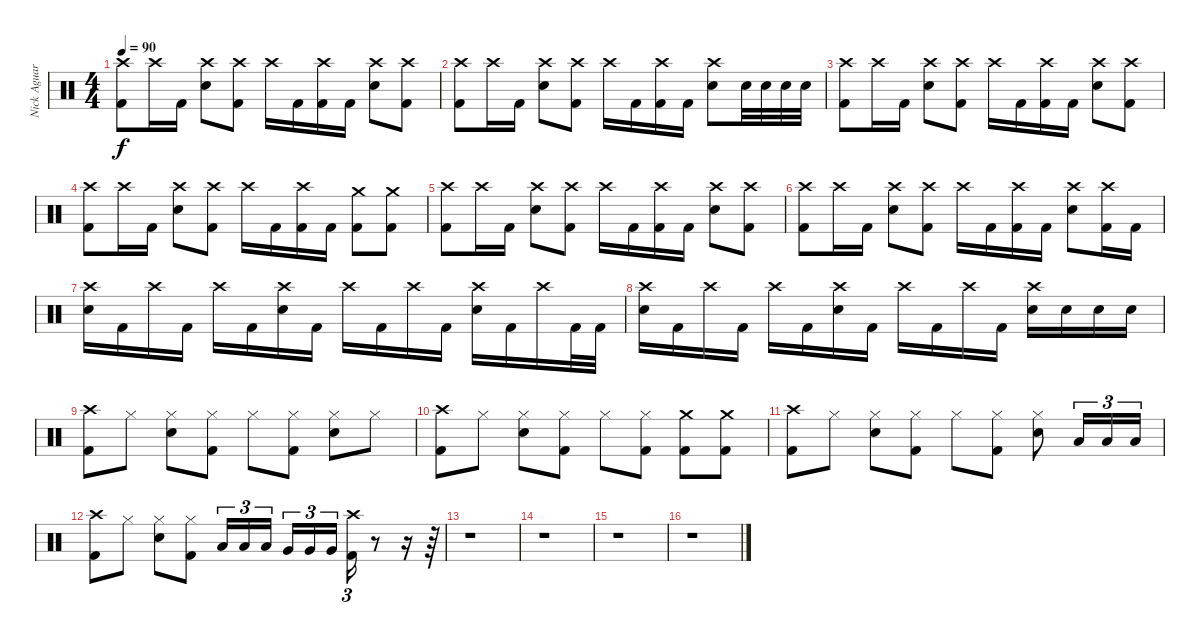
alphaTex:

\track ("Nick Aguara" "Nick Aguar") {instrument percussion}
\staff {score}
\articulation defaults
\ts (4 4)
\tempo 90
\clef neutral
\ks c
("Crash high (hit)" "Kick (hit) 2").8{dy f} "Crash high (hit)".16 "Kick (hit) 2".16 ("Crash high (hit)" "Electric Snare (hit)").8 ("Crash high (hit)" "Kick (hit) 2").8 "Crash high (hit)".16 "Kick (hit) 2".16 ("Crash high (hit)" "Kick (hit) 2").16 "Kick (hit) 2".16 ("Crash high (hit)" "Electric Snare (hit)").8 ("Crash high (hit)" "Kick (hit) 2").8 |
("Crash high (hit)" "Kick (hit) 2").8 "Crash high (hit)".16 "Kick (hit) 2".16 ("Crash high (hit)" "Electric Snare (hit)").8 ("Crash high (hit)" "Kick (hit) 2").8 "Crash high (hit)".16 "Kick (hit) 2".16 ("Crash high (hit)" "Kick (hit) 2").16 "Kick (hit) 2".16 ("Crash high (hit)" "Electric Snare (hit)").8 "Electric Snare (hit)".32 "Electric Snare (hit)".32 "Electric Snare (hit)".32 "Electric Snare (hit)".32 |
("Crash high (hit)" "Kick (hit) 2").8 "Crash high (hit)".16 "Kick (hit) 2".16 ("Crash high (hit)" "Electric Snare (hit)").8 ("Crash high (hit)" "Kick (hit) 2").8 "Crash high (hit)".16 "Kick (hit) 2".16 ("Crash high (hit)" "Kick (hit) 2").16 "Kick (hit) 2".16 ("Crash high (hit)" "Electric Snare (hit)").8 ("Crash high (hit)" "Kick (hit) 2").8 |
("Crash high (hit)" "Kick (hit) 2").8 "Crash high (hit)".16 "Kick (hit) 2".16 ("Crash high (hit)" "Electric Snare (hit)").8 ("Crash high (hit)" "Kick (hit) 2").8 "Crash high (hit)".16 "Kick (hit) 2".16 ("Crash high (hit)" "Kick (hit) 2").16 "Kick (hit) 2".16 ("Crash medium (hit)" "Kick (hit) 2").8 ("Crash medium (hit)" "Kick (hit) 2").8 |
("Crash high (hit)" "Kick (hit) 2").8 "Crash high (hit)".16 "Kick (hit) 2".16 ("Crash high (hit)" "Electric Snare (hit)").8 ("Crash high (hit)" "Kick (hit) 2").8 "Crash high (hit)".16 "Kick (hit) 2".16 ("Crash high (hit)" "Kick (hit) 2").16 "Kick (hit) 2".16 ("Crash high (hit)" "Electric Snare (hit)").8 ("Crash high (hit)" "Kick (hit) 2").8 |
("Crash high (hit)" "Kick (hit) 2").8 "Crash high (hit)".16 "Kick (hit) 2".16 ("Crash high (hit)" "Electric Snare (hit)").8 ("Crash high (hit)" "Kick (hit) 2").8 "Crash high (hit)".16 "Kick (hit) 2".16 ("Crash high (hit)" "Kick (hit) 2").16 "Kick (hit) 2".16 ("Crash high (hit)" "Electric Snare (hit)").8 ("Crash high (hit)" "Kick (hit) 2").16 "Kick (hit) 2".16 |
("Crash high (hit)" "Electric Snare (hit)").16 "Kick (hit) 2".16 "Crash high (hit)".16 "Kick (hit) 2".16 "Crash high (hit)".16 "Kick (hit) 2".16 ("Crash high (hit)" "Electric Snare (hit)").16 "Kick (hit) 2".16 "Crash high (hit)".16 "Kick (hit) 2".16 "Crash high (hit)".16 "Kick (hit) 2".16 ("Crash high (hit)" "Electric Snare (hit)").16 "Kick (hit) 2".16 "Crash high (hit)".16 "Kick (hit) 2".32 "Kick (hit) 2".32 |
("Crash high (hit)" "Electric Snare (hit)").16 "Kick (hit) 2".16 "Crash high (hit)".16 "Kick (hit) 2".16 "Crash high (hit)".16 "Kick (hit) 2".16 ("Crash high (hit)" "Electric Snare (hit)").16 "Kick (hit) 2".16 "Crash high (hit)".16 "Kick (hit) 2".16 "Crash high (hit)".16 "Kick (hit) 2".16 ("Crash high (hit)" "Electric Snare (hit)").16 "Electric Snare (hit)".16 "Electric Snare (hit)".16 "Electric Snare (hit)".16 |
("Crash high (hit)" "Kick (hit) 2").8 "Hi-Hat (closed)".8 ("Hi-Hat (closed)" "Electric Snare (hit)").8 ("Hi-Hat (closed)" "Kick (hit) 2").8 "Hi-Hat (closed)".8 ("Hi-Hat (closed)" "Kick (hit) 2").8 ("Hi-Hat (closed)" "Electric Snare (hit)").8 "Hi-Hat (closed)".8 |
("Crash high (hit)" "Kick (hit) 2").8 "Hi-Hat (closed)".8 ("Hi-Hat (closed)" "Electric Snare (hit)").8 ("Hi-Hat (closed)" "Kick (hit) 2").8 "Hi-Hat (closed)".8 ("Hi-Hat (closed)" "Kick (hit) 2").8 ("Crash medium (hit)" "Kick (hit) 2").8 ("Crash medium (hit)" "Kick (hit) 2").8 |
("Crash high (hit)" "Kick (hit) 2").8 "Hi-Hat (closed)".8 ("Hi-Hat (closed)" "Electric Snare (hit)").8 ("Hi-Hat (closed)" "Kick (hit) 2").8 "Hi-Hat (closed)".8 ("Hi-Hat (closed)" "Kick (hit) 2").8 ("Hi-Hat (closed)" "Electric Snare (hit)").8 "Low Tom (hit)".16{tu (3 2)} "Low Tom (hit)".16{tu (3 2)} "Low Tom (hit)".16{tu (3 2)} |
("Crash high (hit)" "Kick (hit) 2").8 "Hi-Hat (closed)".8 ("Hi-Hat (closed)" "Electric Snare (hit)").8 ("Hi-Hat (closed)" "Kick (hit) 2").8 "Low Tom (hit)".16{tu (3 2)} "Low Tom (hit)".16{tu (3 2)} "Low Tom (hit)".16{tu (3 2) beam splitsecondary} "Very Low Tom (hit)".16{tu (3 2)} "Very Low Tom (hit)".16{tu (3 2)} "Very Low Tom (hit)".16{tu (3 2)} ("Crash high (hit)" "Kick (hit) 2").16{tu (3 2)} r.8 r.16 r.64 |
r.1 |
r.1 |
r.1 |
r.1
